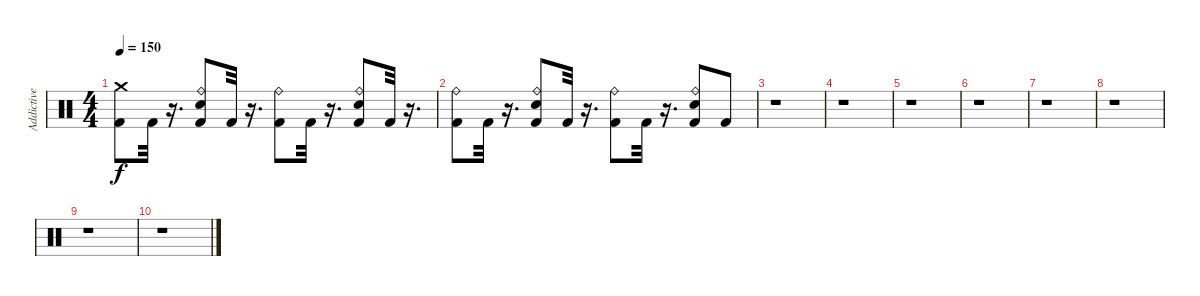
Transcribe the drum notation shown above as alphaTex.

\track ("Addictive Drums (MIDI)" "Addictive ") {instrument percussion}
\staff {score}
\articulation defaults
\ts (4 4)
\tempo 150
\clef neutral
\ks c
("Crash medium (hit)" "Kick (hit) 2").8{dy f} "Kick (hit) 2".32 r.16{d} ("Ride (bell)" "Kick (hit) 2" "Snare (hit) 2").8 "Kick (hit) 2".32 r.16{d} ("Ride (bell)" "Kick (hit) 2").8 "Kick (hit) 2".32 r.16{d} ("Ride (bell)" "Kick (hit) 2" "Snare (hit) 2").8 "Kick (hit) 2".32 r.16{d} |
("Ride (bell)" "Kick (hit) 2").8 "Kick (hit) 2".32 r.16{d} ("Ride (bell)" "Kick (hit) 2" "Snare (hit) 2").8 "Kick (hit) 2".32 r.16{d} ("Ride (bell)" "Kick (hit) 2").8 "Kick (hit) 2".32 r.16{d} ("Ride (bell)" "Kick (hit) 2" "Snare (hit) 2").8 "Kick (hit) 2".8 |
r.1 |
r.1 |
r.1 |
r.1 |
r.1 |
r.1 |
r.1 |
r.1
